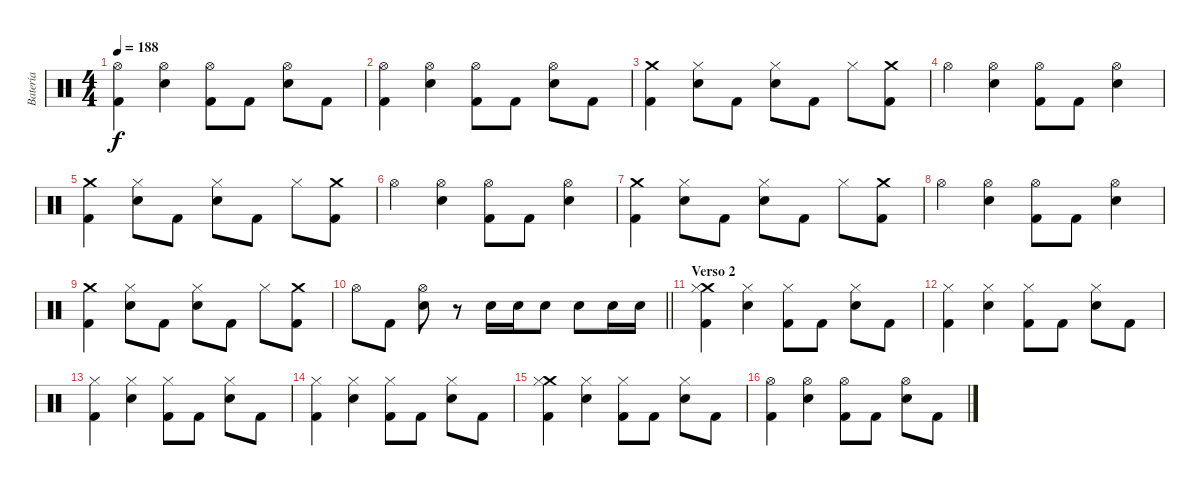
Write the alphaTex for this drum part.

\track ("Batería" "Batería") {instrument percussion}
\staff {score}
\articulation defaults
\ts (4 4)
\tempo 188
\clef neutral
\ks c
("Hi-Hat (open)" "Kick (hit) 2").4{dy f} ("Hi-Hat (open)" "Electric Snare (hit)").4 ("Hi-Hat (open)" "Kick (hit) 2").8 "Kick (hit) 2".8 ("Hi-Hat (open)" "Electric Snare (hit)").8 "Kick (hit) 2".8 |
("Hi-Hat (open)" "Kick (hit) 2").4 ("Hi-Hat (open)" "Electric Snare (hit)").4 ("Hi-Hat (open)" "Kick (hit) 2").8 "Kick (hit) 2".8 ("Hi-Hat (open)" "Electric Snare (hit)").8 "Kick (hit) 2".8 |
("Crash medium (hit)" "Kick (hit) 2").4 ("Hi-Hat (closed)" "Electric Snare (hit)").8 "Kick (hit) 2".8 ("Hi-Hat (closed)" "Electric Snare (hit)").8 "Kick (hit) 2".8 "Hi-Hat (closed)".8 ("Crash medium (hit)" "Kick (hit) 2").8 |
"Hi-Hat (open)".4 ("Hi-Hat (open)" "Electric Snare (hit)").4 ("Hi-Hat (open)" "Kick (hit) 2").8 "Kick (hit) 2".8 ("Hi-Hat (open)" "Electric Snare (hit)").4 |
("Crash medium (hit)" "Kick (hit) 2").4 ("Hi-Hat (closed)" "Electric Snare (hit)").8 "Kick (hit) 2".8 ("Hi-Hat (closed)" "Electric Snare (hit)").8 "Kick (hit) 2".8 "Hi-Hat (closed)".8 ("Crash medium (hit)" "Kick (hit) 2").8 |
"Hi-Hat (open)".4 ("Hi-Hat (open)" "Electric Snare (hit)").4 ("Hi-Hat (open)" "Kick (hit) 2").8 "Kick (hit) 2".8 ("Hi-Hat (open)" "Electric Snare (hit)").4 |
("Crash medium (hit)" "Kick (hit) 2").4 ("Hi-Hat (closed)" "Electric Snare (hit)").8 "Kick (hit) 2".8 ("Hi-Hat (closed)" "Electric Snare (hit)").8 "Kick (hit) 2".8 "Hi-Hat (closed)".8 ("Crash medium (hit)" "Kick (hit) 2").8 |
"Hi-Hat (open)".4 ("Hi-Hat (open)" "Electric Snare (hit)").4 ("Hi-Hat (open)" "Kick (hit) 2").8 "Kick (hit) 2".8 ("Hi-Hat (open)" "Electric Snare (hit)").4 |
("Crash medium (hit)" "Kick (hit) 2").4 ("Hi-Hat (closed)" "Electric Snare (hit)").8 "Kick (hit) 2".8 ("Hi-Hat (closed)" "Electric Snare (hit)").8 "Kick (hit) 2".8 "Hi-Hat (closed)".8 ("Crash medium (hit)" "Kick (hit) 2").8 |
\barLineRight lightlight "Hi-Hat (open)".8 "Kick (hit) 2".8
("Hi-Hat (open)" "Electric Snare (hit)").8 r.8 "Electric Snare (hit)".16 "Electric Snare (hit)".16 "Electric Snare (hit)".8 "Electric Snare (hit)".8 "Electric Snare (hit)".16 "Electric Snare (hit)".16 |
\section ("" "Verso 2")
("Crash medium (hit)" "Hi-Hat (closed)" "Kick (hit) 2").4 ("Hi-Hat (closed)" "Electric Snare (hit)").4 ("Hi-Hat (closed)" "Kick (hit) 2").8 "Kick (hit) 2".8 ("Hi-Hat (closed)" "Electric Snare (hit)").8 "Kick (hit) 2".8 |
("Hi-Hat (closed)" "Kick (hit) 2").4 ("Hi-Hat (closed)" "Electric Snare (hit)").4 ("Hi-Hat (closed)" "Kick (hit) 2").8 "Kick (hit) 2".8 ("Hi-Hat (closed)" "Electric Snare (hit)").8 "Kick (hit) 2".8 |
("Hi-Hat (closed)" "Kick (hit) 2").4 ("Hi-Hat (closed)" "Electric Snare (hit)").4 ("Hi-Hat (closed)" "Kick (hit) 2").8 "Kick (hit) 2".8 ("Hi-Hat (closed)" "Electric Snare (hit)").8 "Kick (hit) 2".8 |
("Hi-Hat (closed)" "Kick (hit) 2").4 ("Hi-Hat (closed)" "Electric Snare (hit)").4 ("Hi-Hat (closed)" "Kick (hit) 2").8 "Kick (hit) 2".8 ("Hi-Hat (closed)" "Electric Snare (hit)").8 "Kick (hit) 2".8 |
("Crash medium (hit)" "Hi-Hat (closed)" "Kick (hit) 2").4 ("Hi-Hat (closed)" "Electric Snare (hit)").4 ("Hi-Hat (closed)" "Kick (hit) 2").8 "Kick (hit) 2".8 ("Hi-Hat (closed)" "Electric Snare (hit)").8 "Kick (hit) 2".8 |
("Hi-Hat (open)" "Kick (hit) 2").4 ("Hi-Hat (open)" "Electric Snare (hit)").4 ("Hi-Hat (open)" "Kick (hit) 2").8 "Kick (hit) 2".8 ("Hi-Hat (open)" "Electric Snare (hit)").8 "Kick (hit) 2".8
